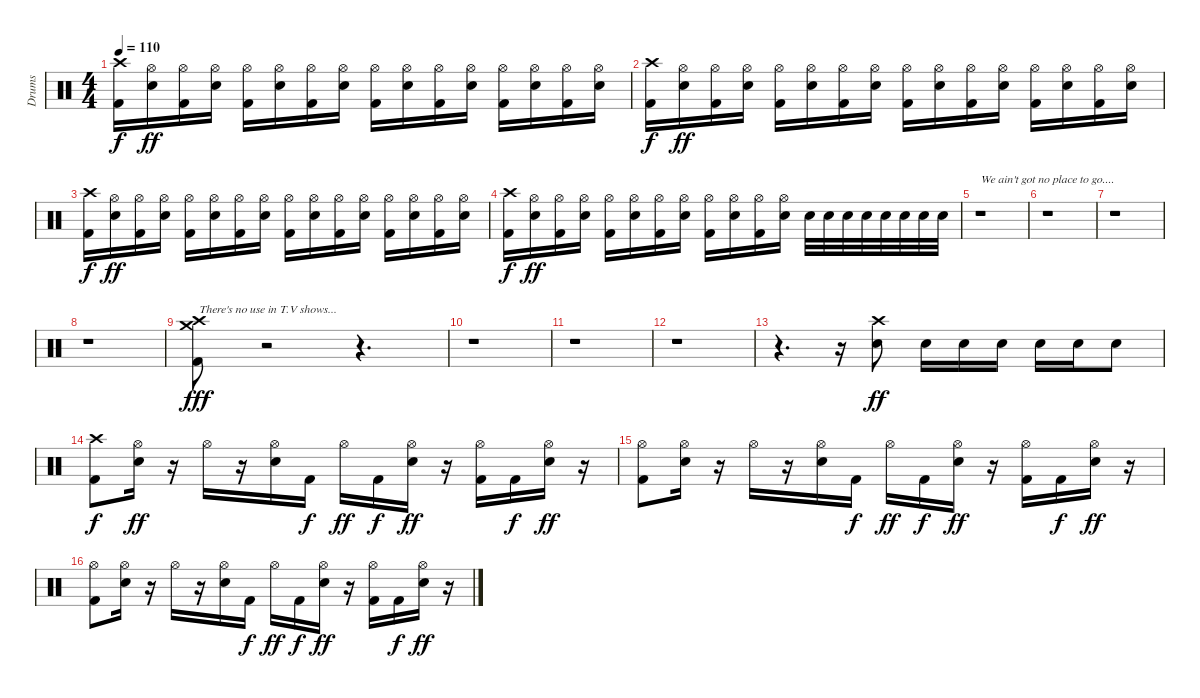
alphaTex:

\track ("Drums" "Drums") {instrument percussion}
\staff {score}
\articulation defaults
\ts (4 4)
\tempo 110
\clef neutral
\ks c
("Crash high (hit)" "Kick (hit) 2").16{dy f} ("Hi-Hat (open)" "Snare (hit) 2").16{dy ff} ("Hi-Hat (open)" "Kick (hit) 2").16 ("Hi-Hat (open)" "Snare (hit) 2").16 ("Hi-Hat (open)" "Kick (hit) 2").16 ("Hi-Hat (open)" "Snare (hit) 2").16 ("Hi-Hat (open)" "Kick (hit) 2").16 ("Hi-Hat (open)" "Snare (hit) 2").16 ("Hi-Hat (open)" "Kick (hit) 2").16 ("Hi-Hat (open)" "Snare (hit) 2").16 ("Hi-Hat (open)" "Kick (hit) 2").16 ("Hi-Hat (open)" "Snare (hit) 2").16 ("Hi-Hat (open)" "Kick (hit) 2").16 ("Hi-Hat (open)" "Snare (hit) 2").16 ("Hi-Hat (open)" "Kick (hit) 2").16 ("Hi-Hat (open)" "Snare (hit) 2").16 |
("Crash high (hit)" "Kick (hit) 2").16{dy f} ("Hi-Hat (open)" "Snare (hit) 2").16{dy ff} ("Hi-Hat (open)" "Kick (hit) 2").16 ("Hi-Hat (open)" "Snare (hit) 2").16 ("Hi-Hat (open)" "Kick (hit) 2").16 ("Hi-Hat (open)" "Snare (hit) 2").16 ("Hi-Hat (open)" "Kick (hit) 2").16 ("Hi-Hat (open)" "Snare (hit) 2").16 ("Hi-Hat (open)" "Kick (hit) 2").16 ("Hi-Hat (open)" "Snare (hit) 2").16 ("Hi-Hat (open)" "Kick (hit) 2").16 ("Hi-Hat (open)" "Snare (hit) 2").16 ("Hi-Hat (open)" "Kick (hit) 2").16 ("Hi-Hat (open)" "Snare (hit) 2").16 ("Hi-Hat (open)" "Kick (hit) 2").16 ("Hi-Hat (open)" "Snare (hit) 2").16 |
("Crash high (hit)" "Kick (hit) 2").16{dy f} ("Hi-Hat (open)" "Snare (hit) 2").16{dy ff} ("Hi-Hat (open)" "Kick (hit) 2").16 ("Hi-Hat (open)" "Snare (hit) 2").16 ("Hi-Hat (open)" "Kick (hit) 2").16 ("Hi-Hat (open)" "Snare (hit) 2").16 ("Hi-Hat (open)" "Kick (hit) 2").16 ("Hi-Hat (open)" "Snare (hit) 2").16 ("Hi-Hat (open)" "Kick (hit) 2").16 ("Hi-Hat (open)" "Snare (hit) 2").16 ("Hi-Hat (open)" "Kick (hit) 2").16 ("Hi-Hat (open)" "Snare (hit) 2").16 ("Hi-Hat (open)" "Kick (hit) 2").16 ("Hi-Hat (open)" "Snare (hit) 2").16 ("Hi-Hat (open)" "Kick (hit) 2").16 ("Hi-Hat (open)" "Snare (hit) 2").16 |
("Crash high (hit)" "Kick (hit) 2").16{dy f} ("Hi-Hat (open)" "Snare (hit) 2").16{dy ff} ("Hi-Hat (open)" "Kick (hit) 2").16 ("Hi-Hat (open)" "Snare (hit) 2").16 ("Hi-Hat (open)" "Kick (hit) 2").16 ("Hi-Hat (open)" "Snare (hit) 2").16 ("Hi-Hat (open)" "Kick (hit) 2").16 ("Hi-Hat (open)" "Snare (hit) 2").16 ("Hi-Hat (open)" "Kick (hit) 2").16 ("Hi-Hat (open)" "Snare (hit) 2").16 ("Hi-Hat (open)" "Kick (hit) 2").16 ("Hi-Hat (open)" "Snare (hit) 2").16 "Snare (hit) 2".32 "Snare (hit) 2".32 "Snare (hit) 2".32 "Snare (hit) 2".32 "Snare (hit) 2".32 "Snare (hit) 2".32 "Snare (hit) 2".32 "Snare (hit) 2".32 |
r.1{txt "We ain't got no place to go...."} |
r.1 |
r.1 |
r.1 |
("Crash high (hit)" "Crash medium (hit)" "Kick (hit) 2").8{txt "There's no use in T.V shows..." dy fff} r.2 r.4{d} |
r.1 |
r.1 |
r.1 |
r.4{d} r.16 ("Crash high (hit)" "Snare (hit) 2").8{dy ff} "Snare (hit) 2".16 "Snare (hit) 2".16 "Snare (hit) 2".16 "Snare (hit) 2".16 "Snare (hit) 2".16 "Snare (hit) 2".8 |
("Crash high (hit)" "Kick (hit) 2").8{dy f} ("Hi-Hat (open)" "Snare (hit) 2").16{dy ff} r.16 "Hi-Hat (open)".16 r.16 ("Hi-Hat (open)" "Snare (hit) 2").16 "Kick (hit) 2".16{dy f} "Hi-Hat (open)".16{dy ff} "Kick (hit) 2".16{dy f} ("Hi-Hat (open)" "Snare (hit) 2").16{dy ff} r.16 ("Hi-Hat (open)" "Kick (hit) 2").16 "Kick (hit) 2".16{dy f} ("Hi-Hat (open)" "Snare (hit) 2").16{dy ff} r.16 |
("Hi-Hat (open)" "Kick (hit) 2").8 ("Hi-Hat (open)" "Snare (hit) 2").16 r.16 "Hi-Hat (open)".16 r.16 ("Hi-Hat (open)" "Snare (hit) 2").16 "Kick (hit) 2".16{dy f} "Hi-Hat (open)".16{dy ff} "Kick (hit) 2".16{dy f} ("Hi-Hat (open)" "Snare (hit) 2").16{dy ff} r.16 ("Hi-Hat (open)" "Kick (hit) 2").16 "Kick (hit) 2".16{dy f} ("Hi-Hat (open)" "Snare (hit) 2").16{dy ff} r.16 |
("Hi-Hat (open)" "Kick (hit) 2").8 ("Hi-Hat (open)" "Snare (hit) 2").16 r.16 "Hi-Hat (open)".16 r.16 ("Hi-Hat (open)" "Snare (hit) 2").16 "Kick (hit) 2".16{dy f} "Hi-Hat (open)".16{dy ff} "Kick (hit) 2".16{dy f} ("Hi-Hat (open)" "Snare (hit) 2").16{dy ff} r.16 ("Hi-Hat (open)" "Kick (hit) 2").16 "Kick (hit) 2".16{dy f} ("Hi-Hat (open)" "Snare (hit) 2").16{dy ff} r.16
